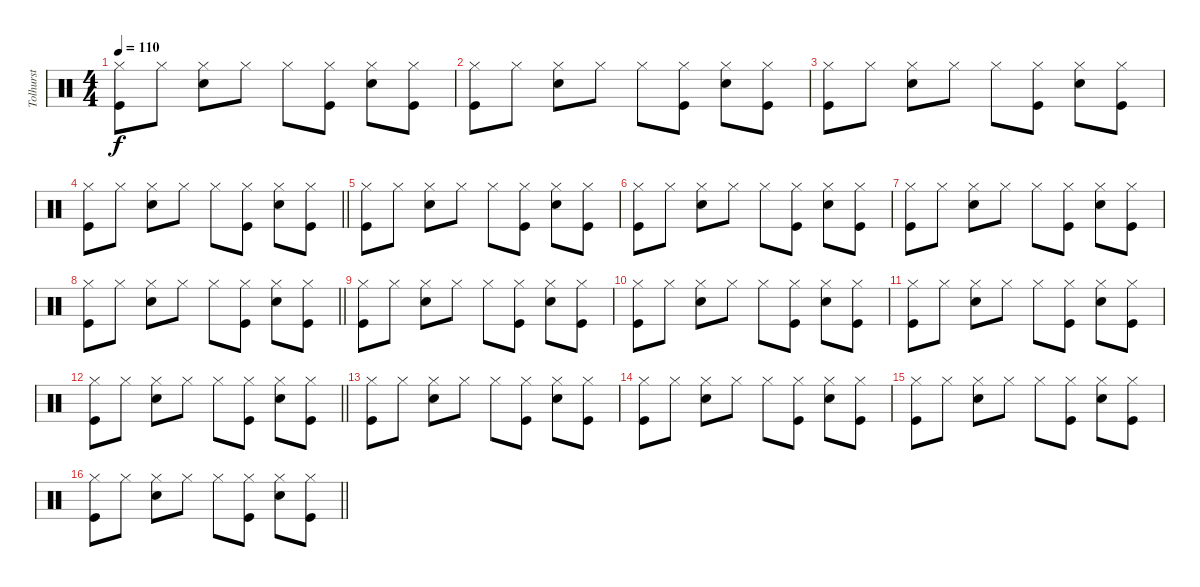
\track ("Tolhurst" "Tolhurst") {instrument percussion}
\staff {score}
\articulation defaults
\ts (4 4)
\tempo 110
\clef neutral
\ks c
("Hi-Hat (closed)" "Kick (hit)").8{dy f} "Hi-Hat (closed)".8 ("Hi-Hat (closed)" "Electric Snare (hit)").8 "Hi-Hat (closed)".8 "Hi-Hat (closed)".8 ("Hi-Hat (closed)" "Kick (hit)").8 ("Hi-Hat (closed)" "Electric Snare (hit)").8 ("Hi-Hat (closed)" "Kick (hit)").8 |
("Hi-Hat (closed)" "Kick (hit)").8 "Hi-Hat (closed)".8 ("Hi-Hat (closed)" "Electric Snare (hit)").8 "Hi-Hat (closed)".8 "Hi-Hat (closed)".8 ("Hi-Hat (closed)" "Kick (hit)").8 ("Hi-Hat (closed)" "Electric Snare (hit)").8 ("Hi-Hat (closed)" "Kick (hit)").8 |
("Hi-Hat (closed)" "Kick (hit)").8 "Hi-Hat (closed)".8 ("Hi-Hat (closed)" "Electric Snare (hit)").8 "Hi-Hat (closed)".8 "Hi-Hat (closed)".8 ("Hi-Hat (closed)" "Kick (hit)").8 ("Hi-Hat (closed)" "Electric Snare (hit)").8 ("Hi-Hat (closed)" "Kick (hit)").8 |
\barLineRight lightlight
("Hi-Hat (closed)" "Kick (hit)").8 "Hi-Hat (closed)".8 ("Hi-Hat (closed)" "Electric Snare (hit)").8 "Hi-Hat (closed)".8 "Hi-Hat (closed)".8 ("Hi-Hat (closed)" "Kick (hit)").8 ("Hi-Hat (closed)" "Electric Snare (hit)").8 ("Hi-Hat (closed)" "Kick (hit)").8 |
("Hi-Hat (closed)" "Kick (hit)").8 "Hi-Hat (closed)".8 ("Hi-Hat (closed)" "Electric Snare (hit)").8 "Hi-Hat (closed)".8 "Hi-Hat (closed)".8 ("Hi-Hat (closed)" "Kick (hit)").8 ("Hi-Hat (closed)" "Electric Snare (hit)").8 ("Hi-Hat (closed)" "Kick (hit)").8 |
("Hi-Hat (closed)" "Kick (hit)").8 "Hi-Hat (closed)".8 ("Hi-Hat (closed)" "Electric Snare (hit)").8 "Hi-Hat (closed)".8 "Hi-Hat (closed)".8 ("Hi-Hat (closed)" "Kick (hit)").8 ("Hi-Hat (closed)" "Electric Snare (hit)").8 ("Hi-Hat (closed)" "Kick (hit)").8 |
("Hi-Hat (closed)" "Kick (hit)").8 "Hi-Hat (closed)".8 ("Hi-Hat (closed)" "Electric Snare (hit)").8 "Hi-Hat (closed)".8 "Hi-Hat (closed)".8 ("Hi-Hat (closed)" "Kick (hit)").8 ("Hi-Hat (closed)" "Electric Snare (hit)").8 ("Hi-Hat (closed)" "Kick (hit)").8 |
\barLineRight lightlight
("Hi-Hat (closed)" "Kick (hit)").8 "Hi-Hat (closed)".8 ("Hi-Hat (closed)" "Electric Snare (hit)").8 "Hi-Hat (closed)".8 "Hi-Hat (closed)".8 ("Hi-Hat (closed)" "Kick (hit)").8 ("Hi-Hat (closed)" "Electric Snare (hit)").8 ("Hi-Hat (closed)" "Kick (hit)").8 |
("Hi-Hat (closed)" "Kick (hit)").8 "Hi-Hat (closed)".8 ("Hi-Hat (closed)" "Electric Snare (hit)").8 "Hi-Hat (closed)".8 "Hi-Hat (closed)".8 ("Hi-Hat (closed)" "Kick (hit)").8 ("Hi-Hat (closed)" "Electric Snare (hit)").8 ("Hi-Hat (closed)" "Kick (hit)").8 |
("Hi-Hat (closed)" "Kick (hit)").8 "Hi-Hat (closed)".8 ("Hi-Hat (closed)" "Electric Snare (hit)").8 "Hi-Hat (closed)".8 "Hi-Hat (closed)".8 ("Hi-Hat (closed)" "Kick (hit)").8 ("Hi-Hat (closed)" "Electric Snare (hit)").8 ("Hi-Hat (closed)" "Kick (hit)").8 |
("Hi-Hat (closed)" "Kick (hit)").8 "Hi-Hat (closed)".8 ("Hi-Hat (closed)" "Electric Snare (hit)").8 "Hi-Hat (closed)".8 "Hi-Hat (closed)".8 ("Hi-Hat (closed)" "Kick (hit)").8 ("Hi-Hat (closed)" "Electric Snare (hit)").8 ("Hi-Hat (closed)" "Kick (hit)").8 |
\barLineRight lightlight
("Hi-Hat (closed)" "Kick (hit)").8 "Hi-Hat (closed)".8 ("Hi-Hat (closed)" "Electric Snare (hit)").8 "Hi-Hat (closed)".8 "Hi-Hat (closed)".8 ("Hi-Hat (closed)" "Kick (hit)").8 ("Hi-Hat (closed)" "Electric Snare (hit)").8 ("Hi-Hat (closed)" "Kick (hit)").8 |
("Hi-Hat (closed)" "Kick (hit)").8 "Hi-Hat (closed)".8 ("Hi-Hat (closed)" "Electric Snare (hit)").8 "Hi-Hat (closed)".8 "Hi-Hat (closed)".8 ("Hi-Hat (closed)" "Kick (hit)").8 ("Hi-Hat (closed)" "Electric Snare (hit)").8 ("Hi-Hat (closed)" "Kick (hit)").8 |
("Hi-Hat (closed)" "Kick (hit)").8 "Hi-Hat (closed)".8 ("Hi-Hat (closed)" "Electric Snare (hit)").8 "Hi-Hat (closed)".8 "Hi-Hat (closed)".8 ("Hi-Hat (closed)" "Kick (hit)").8 ("Hi-Hat (closed)" "Electric Snare (hit)").8 ("Hi-Hat (closed)" "Kick (hit)").8 |
("Hi-Hat (closed)" "Kick (hit)").8 "Hi-Hat (closed)".8 ("Hi-Hat (closed)" "Electric Snare (hit)").8 "Hi-Hat (closed)".8 "Hi-Hat (closed)".8 ("Hi-Hat (closed)" "Kick (hit)").8 ("Hi-Hat (closed)" "Electric Snare (hit)").8 ("Hi-Hat (closed)" "Kick (hit)").8 |
\barLineRight lightlight
("Hi-Hat (closed)" "Kick (hit)").8 "Hi-Hat (closed)".8 ("Hi-Hat (closed)" "Electric Snare (hit)").8 "Hi-Hat (closed)".8 "Hi-Hat (closed)".8 ("Hi-Hat (closed)" "Kick (hit)").8 ("Hi-Hat (closed)" "Electric Snare (hit)").8 ("Hi-Hat (closed)" "Kick (hit)").8
